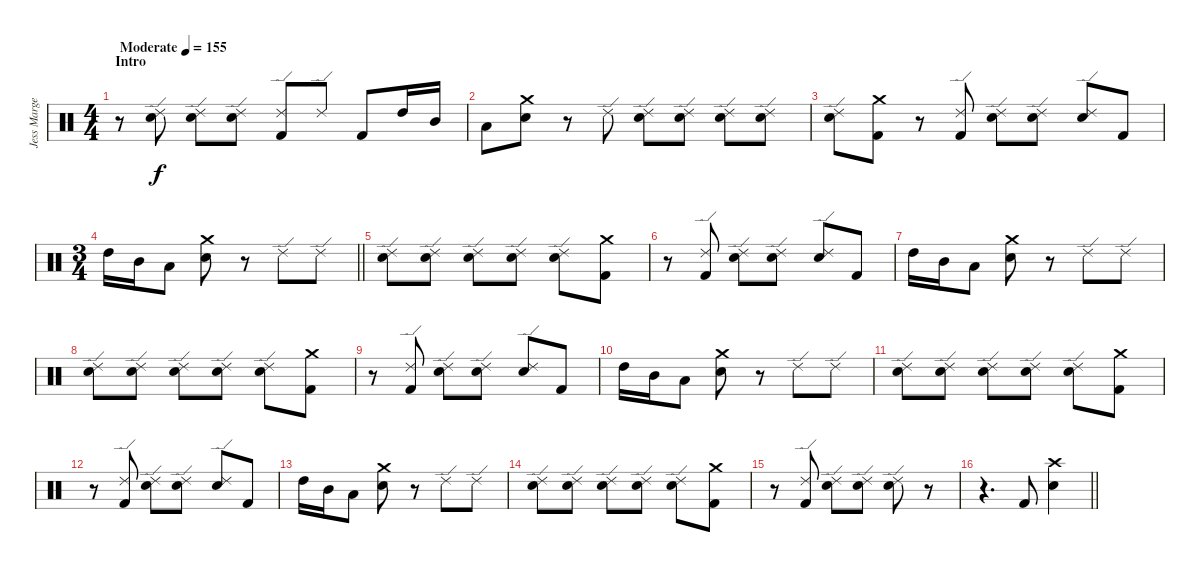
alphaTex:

\track ("Jess Margera" "Jess Marge") {instrument percussion}
\staff {score}
\articulation defaults
\ts (4 4)
\section ("" "Intro")
\tempo (155 "Moderate")
\clef neutral
\ks c
r.8{dy f} ("Ride (edge) 2" "Electric Snare (hit)").8 ("Ride (edge) 2" "Electric Snare (hit)").8 ("Ride (edge) 2" "Electric Snare (hit)").8 ("Ride (edge) 2" "Kick (hit) 2").8 "Ride (edge) 2".8 "Kick (hit) 2".8 "High Tom (hit)".16 "Mid Tom (hit)".16 |
"Low Tom (hit)".8 ("Crash medium (hit)" "Electric Snare (hit)").8 r.8 "Ride (edge) 2".8 ("Ride (edge) 2" "Electric Snare (hit)").8 ("Ride (edge) 2" "Electric Snare (hit)").8 ("Ride (edge) 2" "Electric Snare (hit)").8 ("Ride (edge) 2" "Electric Snare (hit)").8 |
("Ride (edge) 2" "Electric Snare (hit)").8 ("Crash medium (hit)" "Kick (hit) 2").8 r.8 ("Ride (edge) 2" "Kick (hit) 2").8 ("Ride (edge) 2" "Electric Snare (hit)").8 ("Ride (edge) 2" "Electric Snare (hit)").8 ("Ride (edge) 2" "Electric Snare (hit)").8 "Kick (hit) 2".8 |
\ts (3 4)
\barLineRight lightlight "High Tom (hit)".16 "Mid Tom (hit)".16 "Low Tom (hit)".8
("Crash medium (hit)" "Electric Snare (hit)").8 r.8 "Ride (edge) 2".8 "Ride (edge) 2".8 |
\section ("" "")
("Ride (edge) 2" "Electric Snare (hit)").8 ("Ride (edge) 2" "Electric Snare (hit)").8 ("Ride (edge) 2" "Electric Snare (hit)").8 ("Ride (edge) 2" "Electric Snare (hit)").8 ("Ride (edge) 2" "Electric Snare (hit)").8 ("Crash medium (hit)" "Kick (hit) 2").8 |
r.8 ("Ride (edge) 2" "Kick (hit) 2").8 ("Ride (edge) 2" "Electric Snare (hit)").8 ("Ride (edge) 2" "Electric Snare (hit)").8 ("Ride (edge) 2" "Electric Snare (hit)").8 "Kick (hit) 2".8 |
"High Tom (hit)".16 "Mid Tom (hit)".16 "Low Tom (hit)".8 ("Crash medium (hit)" "Electric Snare (hit)").8 r.8 "Ride (edge) 2".8 "Ride (edge) 2".8 |
("Ride (edge) 2" "Electric Snare (hit)").8 ("Ride (edge) 2" "Electric Snare (hit)").8 ("Ride (edge) 2" "Electric Snare (hit)").8 ("Ride (edge) 2" "Electric Snare (hit)").8 ("Ride (edge) 2" "Electric Snare (hit)").8 ("Crash medium (hit)" "Kick (hit) 2").8 |
r.8 ("Ride (edge) 2" "Kick (hit) 2").8 ("Ride (edge) 2" "Electric Snare (hit)").8 ("Ride (edge) 2" "Electric Snare (hit)").8 ("Ride (edge) 2" "Electric Snare (hit)").8 "Kick (hit) 2".8 |
"High Tom (hit)".16 "Mid Tom (hit)".16 "Low Tom (hit)".8 ("Crash medium (hit)" "Electric Snare (hit)").8 r.8 "Ride (edge) 2".8 "Ride (edge) 2".8 |
("Ride (edge) 2" "Electric Snare (hit)").8 ("Ride (edge) 2" "Electric Snare (hit)").8 ("Ride (edge) 2" "Electric Snare (hit)").8 ("Ride (edge) 2" "Electric Snare (hit)").8 ("Ride (edge) 2" "Electric Snare (hit)").8 ("Crash medium (hit)" "Kick (hit) 2").8 |
r.8 ("Ride (edge) 2" "Kick (hit) 2").8 ("Ride (edge) 2" "Electric Snare (hit)").8 ("Ride (edge) 2" "Electric Snare (hit)").8 ("Ride (edge) 2" "Electric Snare (hit)").8 "Kick (hit) 2".8 |
"High Tom (hit)".16 "Mid Tom (hit)".16 "Low Tom (hit)".8 ("Crash medium (hit)" "Electric Snare (hit)").8 r.8 "Ride (edge) 2".8 "Ride (edge) 2".8 |
("Ride (edge) 2" "Electric Snare (hit)").8 ("Ride (edge) 2" "Electric Snare (hit)").8 ("Ride (edge) 2" "Electric Snare (hit)").8 ("Ride (edge) 2" "Electric Snare (hit)").8 ("Ride (edge) 2" "Electric Snare (hit)").8 ("Crash medium (hit)" "Kick (hit) 2").8 |
r.8 ("Ride (edge) 2" "Kick (hit) 2").8 ("Ride (edge) 2" "Electric Snare (hit)").8 ("Ride (edge) 2" "Electric Snare (hit)").8 ("Ride (edge) 2" "Electric Snare (hit)").8 r.8 |
\barLineRight lightlight
r.4{d} "Kick (hit) 2".8 ("Crash high (hit)" "Electric Snare (hit)").4
